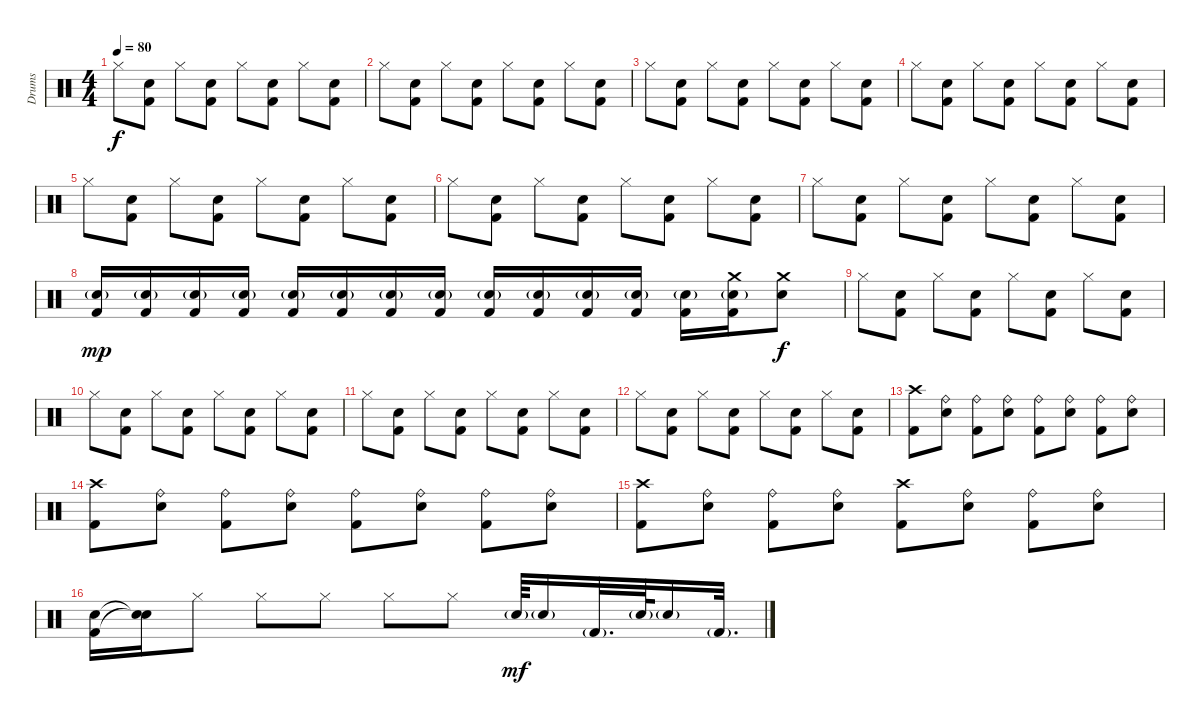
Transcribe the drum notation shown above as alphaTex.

\track ("Drums" "Drums") {instrument percussion}
\staff {score}
\articulation defaults
\ts (4 4)
\tempo 80
\clef neutral
\ks c "Hi-Hat (closed)".8{dy f}
("Electric Snare (hit)" "Kick (hit) 2").8 "Hi-Hat (closed)".8 ("Electric Snare (hit)" "Kick (hit) 2").8 "Hi-Hat (closed)".8 ("Electric Snare (hit)" "Kick (hit) 2").8 "Hi-Hat (closed)".8 ("Electric Snare (hit)" "Kick (hit) 2").8 |
"Hi-Hat (closed)".8 ("Electric Snare (hit)" "Kick (hit) 2").8 "Hi-Hat (closed)".8 ("Electric Snare (hit)" "Kick (hit) 2").8 "Hi-Hat (closed)".8 ("Electric Snare (hit)" "Kick (hit) 2").8 "Hi-Hat (closed)".8 ("Electric Snare (hit)" "Kick (hit) 2").8 |
"Hi-Hat (closed)".8 ("Electric Snare (hit)" "Kick (hit) 2").8 "Hi-Hat (closed)".8 ("Electric Snare (hit)" "Kick (hit) 2").8 "Hi-Hat (closed)".8 ("Electric Snare (hit)" "Kick (hit) 2").8 "Hi-Hat (closed)".8 ("Electric Snare (hit)" "Kick (hit) 2").8 |
"Hi-Hat (closed)".8 ("Electric Snare (hit)" "Kick (hit) 2").8 "Hi-Hat (closed)".8 ("Electric Snare (hit)" "Kick (hit) 2").8 "Hi-Hat (closed)".8 ("Electric Snare (hit)" "Kick (hit) 2").8 "Hi-Hat (closed)".8 ("Electric Snare (hit)" "Kick (hit) 2").8 |
"Hi-Hat (closed)".8 ("Electric Snare (hit)" "Kick (hit) 2").8 "Hi-Hat (closed)".8 ("Electric Snare (hit)" "Kick (hit) 2").8 "Hi-Hat (closed)".8 ("Electric Snare (hit)" "Kick (hit) 2").8 "Hi-Hat (closed)".8 ("Electric Snare (hit)" "Kick (hit) 2").8 |
"Hi-Hat (closed)".8 ("Electric Snare (hit)" "Kick (hit) 2").8 "Hi-Hat (closed)".8 ("Electric Snare (hit)" "Kick (hit) 2").8 "Hi-Hat (closed)".8 ("Electric Snare (hit)" "Kick (hit) 2").8 "Hi-Hat (closed)".8 ("Electric Snare (hit)" "Kick (hit) 2").8 |
"Hi-Hat (closed)".8 ("Electric Snare (hit)" "Kick (hit) 2").8 "Hi-Hat (closed)".8 ("Electric Snare (hit)" "Kick (hit) 2").8 "Hi-Hat (closed)".8 ("Electric Snare (hit)" "Kick (hit) 2").8 "Hi-Hat (closed)".8 ("Electric Snare (hit)" "Kick (hit) 2").8 |
("Kick (hit) 2" "Electric Snare (hit)"{g}).16{dy mp volume 6} ("Kick (hit) 2" "Electric Snare (hit)"{g}).16{volume 16} ("Kick (hit) 2" "Electric Snare (hit)"{g}).16 ("Kick (hit) 2" "Electric Snare (hit)"{g}).16 ("Kick (hit) 2" "Electric Snare (hit)"{g}).16 ("Kick (hit) 2" "Electric Snare (hit)"{g}).16 ("Kick (hit) 2" "Electric Snare (hit)"{g}).16 ("Kick (hit) 2" "Electric Snare (hit)"{g}).16 ("Kick (hit) 2" "Electric Snare (hit)"{g}).16 ("Kick (hit) 2" "Electric Snare (hit)"{g}).16 ("Kick (hit) 2" "Electric Snare (hit)"{g}).16 ("Kick (hit) 2" "Electric Snare (hit)"{g}).16 ("Kick (hit) 2" "Electric Snare (hit)"{g}).16 ("Kick (hit) 2" "Electric Snare (hit)"{g} "Crash medium (hit)").16 ("Crash medium (hit)" "Electric Snare (hit)").8{dy f} |
"Hi-Hat (closed)".8 ("Electric Snare (hit)" "Kick (hit) 2").8 "Hi-Hat (closed)".8 ("Electric Snare (hit)" "Kick (hit) 2").8 "Hi-Hat (closed)".8 ("Electric Snare (hit)" "Kick (hit) 2").8 "Hi-Hat (closed)".8 ("Electric Snare (hit)" "Kick (hit) 2").8 |
"Hi-Hat (closed)".8 ("Electric Snare (hit)" "Kick (hit) 2").8 "Hi-Hat (closed)".8 ("Electric Snare (hit)" "Kick (hit) 2").8 "Hi-Hat (closed)".8 ("Electric Snare (hit)" "Kick (hit) 2").8 "Hi-Hat (closed)".8 ("Electric Snare (hit)" "Kick (hit) 2").8 |
"Hi-Hat (closed)".8 ("Electric Snare (hit)" "Kick (hit) 2").8 "Hi-Hat (closed)".8 ("Electric Snare (hit)" "Kick (hit) 2").8 "Hi-Hat (closed)".8 ("Electric Snare (hit)" "Kick (hit) 2").8 "Hi-Hat (closed)".8 ("Electric Snare (hit)" "Kick (hit) 2").8 |
"Hi-Hat (closed)".8 ("Electric Snare (hit)" "Kick (hit) 2").8 "Hi-Hat (closed)".8 ("Electric Snare (hit)" "Kick (hit) 2").8 "Hi-Hat (closed)".8 ("Electric Snare (hit)" "Kick (hit) 2").8 "Hi-Hat (closed)".8 ("Electric Snare (hit)" "Kick (hit) 2").8 |
("Crash high (hit)" "Kick (hit) 2").8 ("Ride (bell)" "Electric Snare (hit)").8 ("Kick (hit) 2" "Ride (bell)").8 ("Ride (bell)" "Electric Snare (hit)").8 ("Ride (bell)" "Kick (hit) 2").8 ("Ride (bell)" "Electric Snare (hit)").8 ("Kick (hit) 2" "Ride (bell)").8 ("Ride (bell)" "Electric Snare (hit)").8 |
("Crash high (hit)" "Kick (hit) 2").8 ("Ride (bell)" "Electric Snare (hit)").8 ("Kick (hit) 2" "Ride (bell)").8 ("Ride (bell)" "Electric Snare (hit)").8 ("Ride (bell)" "Kick (hit) 2").8 ("Ride (bell)" "Electric Snare (hit)").8 ("Kick (hit) 2" "Ride (bell)").8 ("Ride (bell)" "Electric Snare (hit)").8 |
("Crash high (hit)" "Kick (hit) 2").8 ("Ride (bell)" "Electric Snare (hit)").8 ("Kick (hit) 2" "Ride (bell)").8 ("Ride (bell)" "Electric Snare (hit)").8 ("Crash high (hit)" "Kick (hit) 2").8 ("Ride (bell)" "Electric Snare (hit)").8 ("Kick (hit) 2" "Ride (bell)").8 ("Ride (bell)" "Electric Snare (hit)").8 |
("Electric Snare (hit)" "Kick (hit) 2").16 ("Snare (hit)"{t} "Snare (hit)"{t}).16 "Hi-Hat (closed)".8 "Hi-Hat (closed)".8 "Hi-Hat (closed)".8 "Hi-Hat (closed)".8 "Hi-Hat (closed)".8 "Electric Snare (hit)"{g}.64{dy mf} "Electric Snare (hit)"{g}.16 "Kick (hit) 2"{g}.32{d} "Electric Snare (hit)"{g}.64 "Electric Snare (hit)"{g}.16 "Kick (hit) 2"{g}.32{d}
